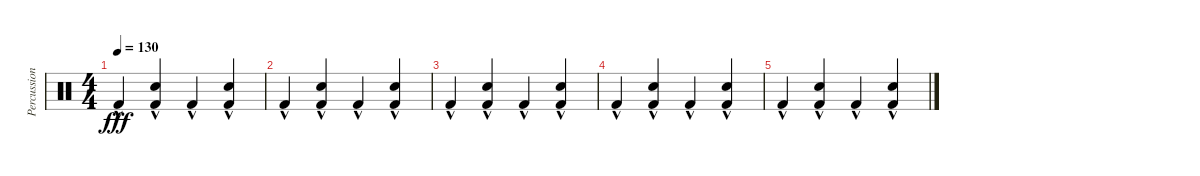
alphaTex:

\track ("Percussion" "Percussion") {instrument percussion}
\staff {score}
\articulation defaults
\ts (4 4)
\tempo 130
\clef neutral
\ks c "Kick (hit) 2"{hac}.4{dy fff}
("Kick (hit) 2"{hac} "Electric Snare (hit)"{hac}).4 "Kick (hit) 2"{hac}.4 ("Kick (hit) 2"{hac} "Electric Snare (hit)"{hac}).4 |
"Kick (hit) 2"{hac}.4 ("Kick (hit) 2"{hac} "Electric Snare (hit)"{hac}).4 "Kick (hit) 2"{hac}.4 ("Kick (hit) 2"{hac} "Electric Snare (hit)"{hac}).4 |
"Kick (hit) 2"{hac}.4 ("Kick (hit) 2"{hac} "Electric Snare (hit)"{hac}).4 "Kick (hit) 2"{hac}.4 ("Kick (hit) 2"{hac} "Electric Snare (hit)"{hac}).4 |
"Kick (hit) 2"{hac}.4 ("Kick (hit) 2"{hac} "Electric Snare (hit)"{hac}).4 "Kick (hit) 2"{hac}.4 ("Kick (hit) 2"{hac} "Electric Snare (hit)"{hac}).4 |
"Kick (hit) 2"{hac}.4 ("Kick (hit) 2"{hac} "Electric Snare (hit)"{hac}).4 "Kick (hit) 2"{hac}.4 ("Kick (hit) 2"{hac} "Electric Snare (hit)"{hac}).4
